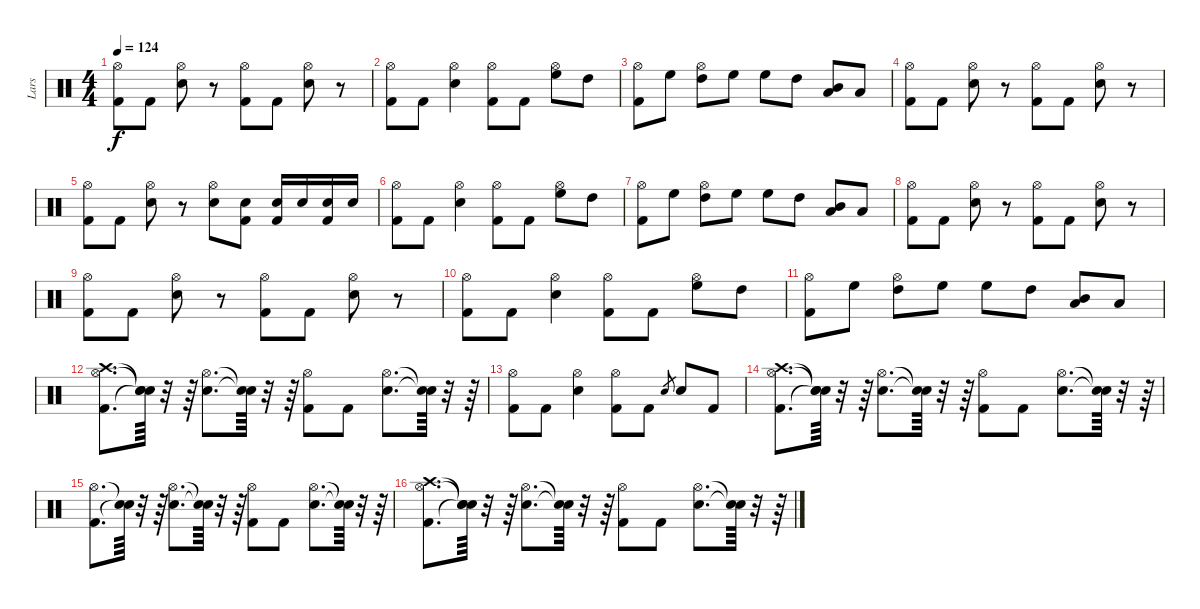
\track ("Lars" "Lars") {instrument percussion}
\staff {score}
\articulation defaults
\ts (4 4)
\tempo 124
\clef neutral
\ks c
("Kick (hit) 2" "Hi-Hat (open)").8{dy f} "Kick (hit) 2".8 ("Snare (hit) 2" "Hi-Hat (open)").8 r.8 ("Kick (hit) 2" "Hi-Hat (open)").8 "Kick (hit) 2".8 ("Snare (hit) 2" "Hi-Hat (open)").8 r.8 |
("Kick (hit) 2" "Hi-Hat (open)").8 "Kick (hit) 2".8 ("Snare (hit) 2" "Hi-Hat (open)").4 ("Hi-Hat (open)" "Kick (hit) 2").8 "Kick (hit) 2".8 ("Hi-Hat (open)" "High Floor Tom (hit)").8 "High Tom (hit)".8 |
("Kick (hit) 2" "Hi-Hat (open)").8 "High Floor Tom (hit)".8 ("High Tom (hit)" "Hi-Hat (open)").8 "High Floor Tom (hit)".8 "High Floor Tom (hit)".8 "High Tom (hit)".8 ("Mid Tom (hit)" "Low Tom (hit)").8 "Low Tom (hit)".8 |
("Kick (hit) 2" "Hi-Hat (open)").8 "Kick (hit) 2".8 ("Snare (hit) 2" "Hi-Hat (open)").8 r.8 ("Kick (hit) 2" "Hi-Hat (open)").8 "Kick (hit) 2".8 ("Snare (hit) 2" "Hi-Hat (open)").8 r.8 |
("Kick (hit) 2" "Hi-Hat (open)").8 "Kick (hit) 2".8 ("Snare (hit) 2" "Hi-Hat (open)").8 r.8 ("Snare (hit) 2" "Hi-Hat (open)").8 ("Kick (hit) 2" "Snare (hit) 2").8 ("Snare (hit) 2" "Kick (hit) 2").16 "Snare (hit) 2".16 ("Snare (hit) 2" "Kick (hit) 2").16 "Snare (hit) 2".16 |
("Kick (hit) 2" "Hi-Hat (open)").8 "Kick (hit) 2".8 ("Snare (hit) 2" "Hi-Hat (open)").4 ("Hi-Hat (open)" "Kick (hit) 2").8 "Kick (hit) 2".8 ("Hi-Hat (open)" "High Floor Tom (hit)").8 "High Tom (hit)".8 |
("Kick (hit) 2" "Hi-Hat (open)").8 "High Floor Tom (hit)".8 ("High Tom (hit)" "Hi-Hat (open)").8 "High Floor Tom (hit)".8 "High Floor Tom (hit)".8 "High Tom (hit)".8 ("Mid Tom (hit)" "Low Tom (hit)").8 "Low Tom (hit)".8 |
("Kick (hit) 2" "Hi-Hat (open)").8 "Kick (hit) 2".8 ("Snare (hit) 2" "Hi-Hat (open)").8 r.8 ("Kick (hit) 2" "Hi-Hat (open)").8 "Kick (hit) 2".8 ("Snare (hit) 2" "Hi-Hat (open)").8 r.8 |
("Kick (hit) 2" "Hi-Hat (open)").8 "Kick (hit) 2".8 ("Snare (hit) 2" "Hi-Hat (open)").8 r.8 ("Kick (hit) 2" "Hi-Hat (open)").8 "Kick (hit) 2".8 ("Snare (hit) 2" "Hi-Hat (open)").8 r.8 |
("Kick (hit) 2" "Hi-Hat (open)").8 "Kick (hit) 2".8 ("Snare (hit) 2" "Hi-Hat (open)").4 ("Hi-Hat (open)" "Kick (hit) 2").8 "Kick (hit) 2".8 ("Hi-Hat (open)" "High Floor Tom (hit)").8 "High Tom (hit)".8 |
("Kick (hit) 2" "Hi-Hat (open)").8 "High Floor Tom (hit)".8 ("High Tom (hit)" "Hi-Hat (open)").8 "High Floor Tom (hit)".8 "High Floor Tom (hit)".8 "High Tom (hit)".8 ("Mid Tom (hit)" "Low Tom (hit)").8 "Low Tom (hit)".8 |
("Kick (hit) 2" "Hi-Hat (open)" "Crash high (hit)").8{d} ("Snare (hit)"{t} "Snare (hit)"{t} "Snare (hit)"{t}).64 r.32 r.64 ("Snare (hit) 2" "Hi-Hat (open)").8{d} ("Snare (hit)"{t} "Snare (hit)"{t}).64 r.32 r.64 ("Kick (hit) 2" "Hi-Hat (open)").8 "Kick (hit) 2".8 ("Snare (hit) 2" "Hi-Hat (open)").8{d} ("Snare (hit)"{t} "Snare (hit)"{t}).64 r.32 r.64 |
("Kick (hit) 2" "Hi-Hat (open)").8 "Kick (hit) 2".8 ("Snare (hit) 2" "Hi-Hat (open)").4 ("Kick (hit) 2" "Hi-Hat (open)").8 "Kick (hit) 2".8 "Snare (hit) 2".8{gr} "Snare (hit) 2".8 "Kick (hit) 2".8 |
("Kick (hit) 2" "Hi-Hat (open)" "Crash high (hit)").8{d} ("Snare (hit)"{t} "Snare (hit)"{t} "Snare (hit)"{t}).64 r.32 r.64 ("Snare (hit) 2" "Hi-Hat (open)").8{d} ("Snare (hit)"{t} "Snare (hit)"{t}).64 r.32 r.64 ("Kick (hit) 2" "Hi-Hat (open)").8 "Kick (hit) 2".8 ("Snare (hit) 2" "Hi-Hat (open)").8{d} ("Snare (hit)"{t} "Snare (hit)"{t}).64 r.32 r.64 |
("Kick (hit) 2" "Hi-Hat (open)").8{d} ("Snare (hit)"{t} "Snare (hit)"{t}).64 r.32 r.64 ("Snare (hit) 2" "Hi-Hat (open)").8{d} ("Snare (hit)"{t} "Snare (hit)"{t}).64 r.32 r.64 ("Kick (hit) 2" "Hi-Hat (open)").8 "Kick (hit) 2".8 ("Snare (hit) 2" "Hi-Hat (open)").8{d} ("Snare (hit)"{t} "Snare (hit)"{t}).64 r.32 r.64 |
("Kick (hit) 2" "Hi-Hat (open)" "Crash high (hit)").8{d} ("Snare (hit)"{t} "Snare (hit)"{t} "Snare (hit)"{t}).64 r.32 r.64 ("Snare (hit) 2" "Hi-Hat (open)").8{d} ("Snare (hit)"{t} "Snare (hit)"{t}).64 r.32 r.64 ("Kick (hit) 2" "Hi-Hat (open)").8 "Kick (hit) 2".8 ("Snare (hit) 2" "Hi-Hat (open)").8{d} ("Snare (hit)"{t} "Snare (hit)"{t}).64 r.32 r.64
